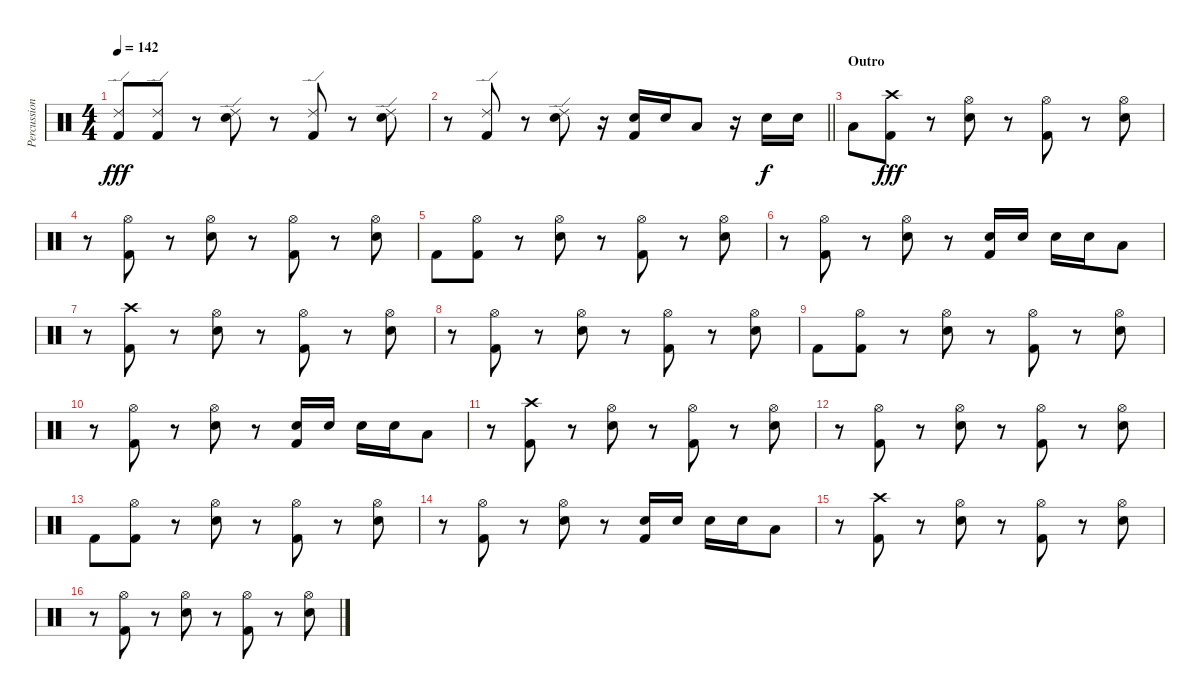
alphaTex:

\track ("Percussion" "Percussion") {instrument percussion}
\staff {score}
\articulation defaults
\ts (4 4)
\tempo 142
\clef neutral
\ks c
("Ride (edge) 2" "Kick (hit) 2").8{dy fff} ("Ride (edge) 2" "Kick (hit) 2").8 r.8 ("Ride (edge) 2" "Electric Snare (hit)").8 r.8 ("Ride (edge) 2" "Kick (hit) 2").8 r.8 ("Ride (edge) 2" "Electric Snare (hit)").8 |
\barLineRight lightlight
r.8 ("Ride (edge) 2" "Kick (hit) 2").8 r.8 ("Ride (edge) 2" "Electric Snare (hit)").8 r.16 ("Electric Snare (hit)" "Kick (hit) 2").16 "Electric Snare (hit)".16 "Low Tom (hit)".8 r.16 "Electric Snare (hit)".16{dy f} "Electric Snare (hit)".16 |
\section ("" "Outro")
"Low Tom (hit)".8 ("Crash high (hit)" "Kick (hit) 2").8{dy fff} r.8 ("Hi-Hat (open)" "Electric Snare (hit)").8 r.8 ("Hi-Hat (open)" "Kick (hit) 2").8 r.8 ("Hi-Hat (open)" "Electric Snare (hit)").8 |
r.8 ("Hi-Hat (open)" "Kick (hit) 2").8 r.8 ("Hi-Hat (open)" "Electric Snare (hit)").8 r.8 ("Hi-Hat (open)" "Kick (hit) 2").8 r.8 ("Hi-Hat (open)" "Electric Snare (hit)").8 |
"Kick (hit) 2".8 ("Hi-Hat (open)" "Kick (hit) 2").8 r.8 ("Hi-Hat (open)" "Electric Snare (hit)").8 r.8 ("Hi-Hat (open)" "Kick (hit) 2").8 r.8 ("Hi-Hat (open)" "Electric Snare (hit)").8 |
r.8 ("Hi-Hat (open)" "Kick (hit) 2").8 r.8 ("Hi-Hat (open)" "Electric Snare (hit)").8 r.8 ("Electric Snare (hit)" "Kick (hit) 2").16 "Electric Snare (hit)".16 "Electric Snare (hit)".16 "Electric Snare (hit)".16 "Low Tom (hit)".8 |
r.8 ("Crash high (hit)" "Kick (hit) 2").8 r.8 ("Hi-Hat (open)" "Electric Snare (hit)").8 r.8 ("Hi-Hat (open)" "Kick (hit) 2").8 r.8 ("Hi-Hat (open)" "Electric Snare (hit)").8 |
r.8 ("Hi-Hat (open)" "Kick (hit) 2").8 r.8 ("Hi-Hat (open)" "Electric Snare (hit)").8 r.8 ("Hi-Hat (open)" "Kick (hit) 2").8 r.8 ("Hi-Hat (open)" "Electric Snare (hit)").8 |
"Kick (hit) 2".8 ("Hi-Hat (open)" "Kick (hit) 2").8 r.8 ("Hi-Hat (open)" "Electric Snare (hit)").8 r.8 ("Hi-Hat (open)" "Kick (hit) 2").8 r.8 ("Hi-Hat (open)" "Electric Snare (hit)").8 |
r.8 ("Hi-Hat (open)" "Kick (hit) 2").8 r.8 ("Hi-Hat (open)" "Electric Snare (hit)").8 r.8 ("Electric Snare (hit)" "Kick (hit) 2").16 "Electric Snare (hit)".16 "Electric Snare (hit)".16 "Electric Snare (hit)".16 "Low Tom (hit)".8 |
r.8 ("Crash high (hit)" "Kick (hit) 2").8 r.8 ("Hi-Hat (open)" "Electric Snare (hit)").8 r.8 ("Hi-Hat (open)" "Kick (hit) 2").8 r.8 ("Hi-Hat (open)" "Electric Snare (hit)").8 |
r.8 ("Hi-Hat (open)" "Kick (hit) 2").8 r.8 ("Hi-Hat (open)" "Electric Snare (hit)").8 r.8 ("Hi-Hat (open)" "Kick (hit) 2").8 r.8 ("Hi-Hat (open)" "Electric Snare (hit)").8 |
"Kick (hit) 2".8 ("Hi-Hat (open)" "Kick (hit) 2").8 r.8 ("Hi-Hat (open)" "Electric Snare (hit)").8 r.8 ("Hi-Hat (open)" "Kick (hit) 2").8 r.8 ("Hi-Hat (open)" "Electric Snare (hit)").8 |
r.8 ("Hi-Hat (open)" "Kick (hit) 2").8 r.8 ("Hi-Hat (open)" "Electric Snare (hit)").8 r.8 ("Electric Snare (hit)" "Kick (hit) 2").16 "Electric Snare (hit)".16 "Electric Snare (hit)".16 "Electric Snare (hit)".16 "Low Tom (hit)".8 |
r.8 ("Crash high (hit)" "Kick (hit) 2").8 r.8 ("Hi-Hat (open)" "Electric Snare (hit)").8 r.8 ("Hi-Hat (open)" "Kick (hit) 2").8 r.8 ("Hi-Hat (open)" "Electric Snare (hit)").8 |
r.8 ("Hi-Hat (open)" "Kick (hit) 2").8 r.8 ("Hi-Hat (open)" "Electric Snare (hit)").8 r.8 ("Hi-Hat (open)" "Kick (hit) 2").8 r.8 ("Hi-Hat (open)" "Electric Snare (hit)").8
